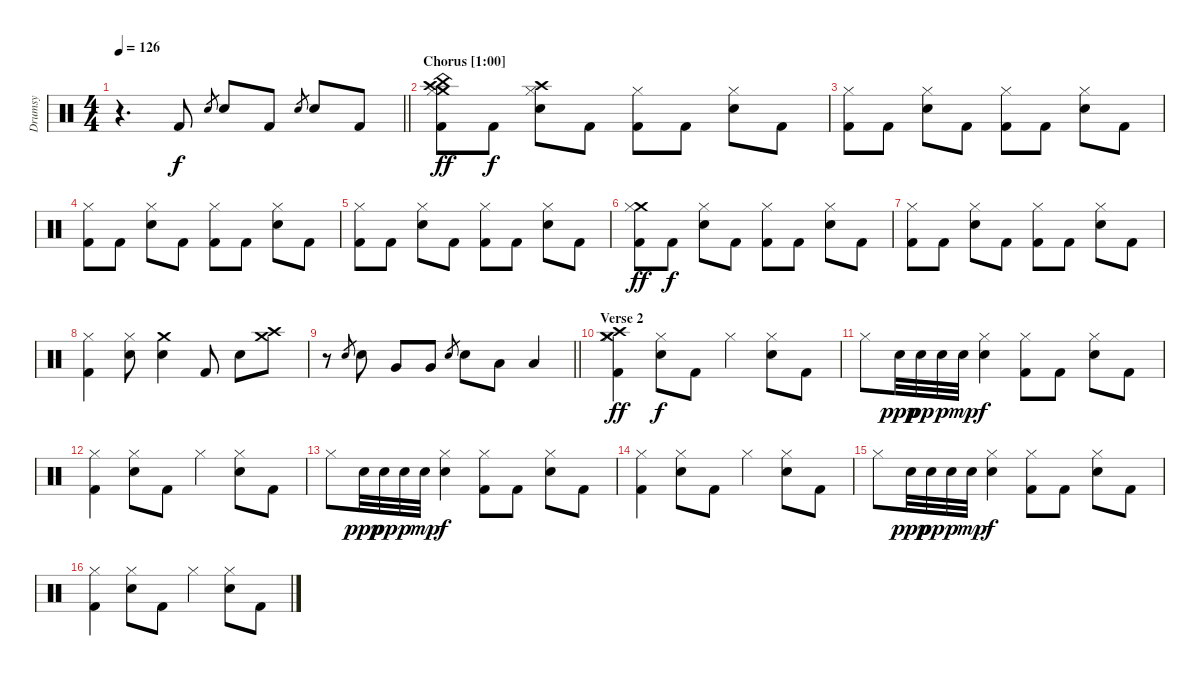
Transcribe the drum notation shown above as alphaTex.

\track ("Drumsy" "Drumsy") {instrument percussion}
\staff {score}
\articulation defaults
\ts (4 4)
\tempo 126
\clef neutral
\barLineRight lightlight
\ks c
r.4{d dy f} "Kick (hit) 2".8 "Electric Snare (hit)".8{gr} "Electric Snare (hit)".8 "Kick (hit) 2".8 "Electric Snare (hit)".8{gr} "Electric Snare (hit)".8 "Kick (hit) 2".8 |
\section ("" "Chorus [1:00]")
("Crash medium (hit)" "Hi-Hat (closed)" "Crash high (hit)" "China (hit)" "Kick (hit) 2").8{dy ff} "Kick (hit) 2".8{dy f} ("Crash high (hit)" "Hi-Hat (closed)" "Electric Snare (hit)").8 "Kick (hit) 2".8 ("Hi-Hat (closed)" "Kick (hit) 2").8 "Kick (hit) 2".8 ("Hi-Hat (closed)" "Electric Snare (hit)").8 "Kick (hit) 2".8 |
("Hi-Hat (closed)" "Kick (hit) 2").8 "Kick (hit) 2".8 ("Hi-Hat (closed)" "Electric Snare (hit)").8 "Kick (hit) 2".8 ("Hi-Hat (closed)" "Kick (hit) 2").8 "Kick (hit) 2".8 ("Hi-Hat (closed)" "Electric Snare (hit)").8 "Kick (hit) 2".8 |
("Hi-Hat (closed)" "Kick (hit) 2").8 "Kick (hit) 2".8 ("Hi-Hat (closed)" "Electric Snare (hit)").8 "Kick (hit) 2".8 ("Hi-Hat (closed)" "Kick (hit) 2").8 "Kick (hit) 2".8 ("Hi-Hat (closed)" "Electric Snare (hit)").8 "Kick (hit) 2".8 |
("Hi-Hat (closed)" "Kick (hit) 2").8 "Kick (hit) 2".8 ("Hi-Hat (closed)" "Electric Snare (hit)").8 "Kick (hit) 2".8 ("Hi-Hat (closed)" "Kick (hit) 2").8 "Kick (hit) 2".8 ("Hi-Hat (closed)" "Electric Snare (hit)").8 "Kick (hit) 2".8 |
("Crash medium (hit)" "Hi-Hat (closed)" "Kick (hit) 2").8{dy ff} "Kick (hit) 2".8{dy f} ("Hi-Hat (closed)" "Electric Snare (hit)").8 "Kick (hit) 2".8 ("Hi-Hat (closed)" "Kick (hit) 2").8 "Kick (hit) 2".8 ("Hi-Hat (closed)" "Electric Snare (hit)").8 "Kick (hit) 2".8 |
("Hi-Hat (closed)" "Kick (hit) 2").8 "Kick (hit) 2".8 ("Hi-Hat (closed)" "Electric Snare (hit)").8 "Kick (hit) 2".8 ("Hi-Hat (closed)" "Kick (hit) 2").8 "Kick (hit) 2".8 ("Hi-Hat (closed)" "Electric Snare (hit)").8 "Kick (hit) 2".8 |
("Hi-Hat (closed)" "Kick (hit) 2").4 ("Hi-Hat (closed)" "Electric Snare (hit)").8 ("Crash medium (hit)" "Snare (hit) 2").4 "Kick (hit) 2".8 "Electric Snare (hit)".8 ("Crash high (hit)" "Crash medium (hit)").8 |
\barLineRight lightlight
r.8 "Snare (hit) 2".8{gr} "Electric Snare (hit)".8 "Very Low Tom (hit)".8 "Very Low Tom (hit)".8 "Electric Snare (hit)".8{gr} "Electric Snare (hit)".8 "Low Floor Tom (hit)".8 "Low Floor Tom (hit)".4 |
\section ("" "Verse 2")
("Crash medium (hit)" "Hi-Hat (closed)" "Crash high (hit)" "Kick (hit) 2").4{dy ff} ("Hi-Hat (closed)" "Electric Snare (hit)").8{dy f} "Kick (hit) 2".8 "Hi-Hat (closed)".4 ("Hi-Hat (closed)" "Electric Snare (hit)").8 "Kick (hit) 2".8 |
"Hi-Hat (closed)".8 "Snare (hit) 2".32{dy ppp} "Snare (hit) 2".32{dy pp} "Snare (hit) 2".32{dy p} "Snare (hit) 2".32{dy mp} ("Hi-Hat (closed)" "Electric Snare (hit)").4{dy f} ("Hi-Hat (closed)" "Kick (hit) 2").8 "Kick (hit) 2".8 ("Hi-Hat (closed)" "Electric Snare (hit)").8 "Kick (hit) 2".8 |
("Hi-Hat (closed)" "Kick (hit) 2").4 ("Hi-Hat (closed)" "Electric Snare (hit)").8 "Kick (hit) 2".8 "Hi-Hat (closed)".4 ("Hi-Hat (closed)" "Electric Snare (hit)").8 "Kick (hit) 2".8 |
"Hi-Hat (closed)".8 "Snare (hit) 2".32{dy ppp} "Snare (hit) 2".32{dy pp} "Snare (hit) 2".32{dy p} "Snare (hit) 2".32{dy mp} ("Hi-Hat (closed)" "Electric Snare (hit)").4{dy f} ("Hi-Hat (closed)" "Kick (hit) 2").8 "Kick (hit) 2".8 ("Hi-Hat (closed)" "Electric Snare (hit)").8 "Kick (hit) 2".8 |
("Hi-Hat (closed)" "Kick (hit) 2").4 ("Hi-Hat (closed)" "Electric Snare (hit)").8 "Kick (hit) 2".8 "Hi-Hat (closed)".4 ("Hi-Hat (closed)" "Electric Snare (hit)").8 "Kick (hit) 2".8 |
"Hi-Hat (closed)".8 "Snare (hit) 2".32{dy ppp} "Snare (hit) 2".32{dy pp} "Snare (hit) 2".32{dy p} "Snare (hit) 2".32{dy mp} ("Hi-Hat (closed)" "Electric Snare (hit)").4{dy f} ("Hi-Hat (closed)" "Kick (hit) 2").8 "Kick (hit) 2".8 ("Hi-Hat (closed)" "Electric Snare (hit)").8 "Kick (hit) 2".8 |
("Hi-Hat (closed)" "Kick (hit) 2").4 ("Hi-Hat (closed)" "Electric Snare (hit)").8 "Kick (hit) 2".8 "Hi-Hat (closed)".4 ("Hi-Hat (closed)" "Electric Snare (hit)").8 "Kick (hit) 2".8
